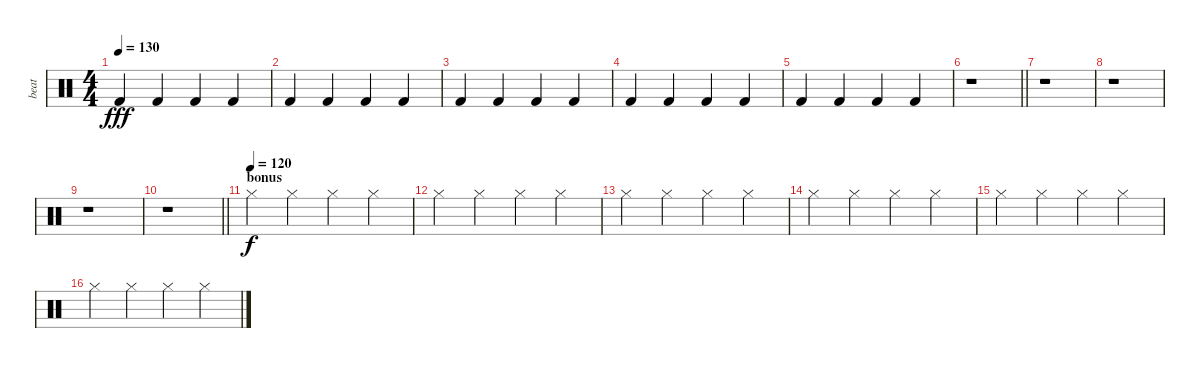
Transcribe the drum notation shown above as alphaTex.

\track ("beat" "beat") {instrument percussion}
\staff {score}
\articulation defaults
\ts (4 4)
\tempo 130
\clef neutral
\ks c "Kick (hit) 2".4{dy fff} "Kick (hit) 2".4 "Kick (hit) 2".4 "Kick (hit) 2".4
|
"Kick (hit) 2".4 "Kick (hit) 2".4 "Kick (hit) 2".4 "Kick (hit) 2".4 |
"Kick (hit) 2".4 "Kick (hit) 2".4 "Kick (hit) 2".4 "Kick (hit) 2".4 |
"Kick (hit) 2".4 "Kick (hit) 2".4 "Kick (hit) 2".4 "Kick (hit) 2".4 |
"Kick (hit) 2".4 "Kick (hit) 2".4 "Kick (hit) 2".4 "Kick (hit) 2".4 |
\barLineRight lightlight
r.1 |
r.1 |
r.1 |
r.1 |
\barLineRight lightlight
r.1 |
\section ("" "bonus")
\tempo (120)
"Hi-Hat (closed)".4{dy f volume 15} "Hi-Hat (closed)".4 "Hi-Hat (closed)".4 "Hi-Hat (closed)".4 |
"Hi-Hat (closed)".4 "Hi-Hat (closed)".4 "Hi-Hat (closed)".4 "Hi-Hat (closed)".4 |
"Hi-Hat (closed)".4 "Hi-Hat (closed)".4 "Hi-Hat (closed)".4 "Hi-Hat (closed)".4 |
"Hi-Hat (closed)".4 "Hi-Hat (closed)".4 "Hi-Hat (closed)".4 "Hi-Hat (closed)".4 |
"Hi-Hat (closed)".4 "Hi-Hat (closed)".4 "Hi-Hat (closed)".4 "Hi-Hat (closed)".4 |
"Hi-Hat (closed)".4 "Hi-Hat (closed)".4 "Hi-Hat (closed)".4 "Hi-Hat (closed)".4
